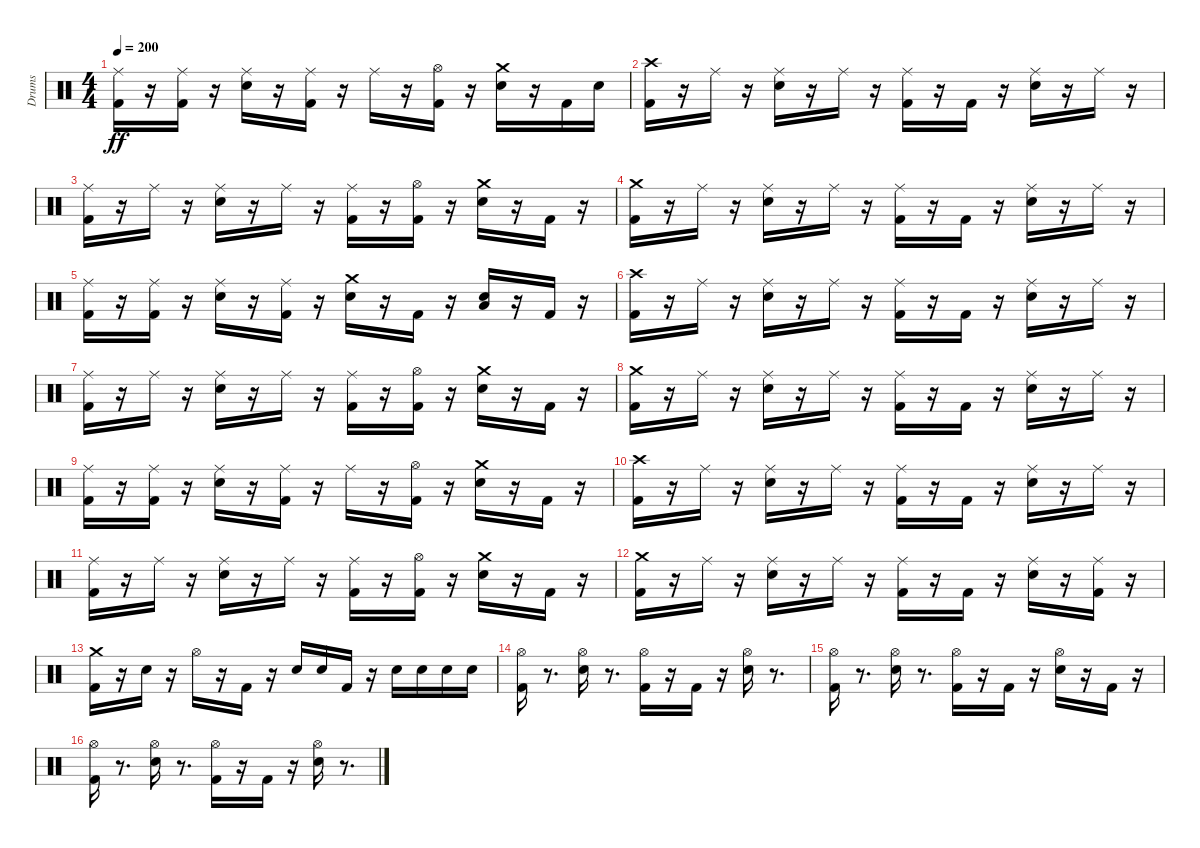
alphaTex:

\track ("Drums" "Drums") {instrument percussion}
\staff {score}
\articulation defaults
\ts (4 4)
\tempo 200
\clef neutral
\ks c
("Kick (hit) 2" "Ride (middle)").16{dy ff} r.16 ("Kick (hit) 2" "Ride (middle)").16 r.16 ("Snare (hit) 2" "Ride (middle)").16 r.16 ("Kick (hit) 2" "Ride (middle)").16 r.16 "Ride (middle)".16 r.16 ("Kick (hit) 2" "Hi-Hat (open)").16 r.16 ("Snare (hit) 2" "Crash medium (hit)").16 r.16 "Kick (hit) 2".16 "Snare (hit) 2".16 |
("Kick (hit) 2" "Crash high (hit)").16 r.16 "Ride (middle)".16 r.16 ("Snare (hit) 2" "Ride (middle)").16 r.16 "Ride (middle)".16 r.16 ("Kick (hit) 2" "Ride (middle)").16 r.16 "Kick (hit) 2".16 r.16 ("Snare (hit) 2" "Ride (middle)").16 r.16 "Ride (middle)".16 r.16 |
("Kick (hit) 2" "Ride (middle)").16 r.16 "Ride (middle)".16 r.16 ("Snare (hit) 2" "Ride (middle)").16 r.16 "Ride (middle)".16 r.16 ("Kick (hit) 2" "Ride (middle)").16 r.16 ("Kick (hit) 2" "Hi-Hat (open)").16 r.16 ("Snare (hit) 2" "Crash medium (hit)").16 r.16 "Kick (hit) 2".16 r.16 |
("Kick (hit) 2" "Crash medium (hit)").16 r.16 "Ride (middle)".16 r.16 ("Snare (hit) 2" "Ride (middle)").16 r.16 "Ride (middle)".16 r.16 ("Kick (hit) 2" "Ride (middle)").16 r.16 "Kick (hit) 2".16 r.16 ("Snare (hit) 2" "Ride (middle)").16 r.16 "Ride (middle)".16 r.16 |
("Kick (hit) 2" "Ride (middle)").16 r.16 ("Kick (hit) 2" "Ride (middle)").16 r.16 ("Snare (hit) 2" "Ride (middle)").16 r.16 ("Kick (hit) 2" "Ride (middle)").16 r.16 ("Snare (hit) 2" "Crash medium (hit)").16 r.16 "Kick (hit) 2".16 r.16 ("Snare (hit) 2" "Low Tom (hit)").16 r.16 "Kick (hit) 2".16 r.16 |
("Kick (hit) 2" "Crash high (hit)").16 r.16 "Ride (middle)".16 r.16 ("Snare (hit) 2" "Ride (middle)").16 r.16 "Ride (middle)".16 r.16 ("Kick (hit) 2" "Ride (middle)").16 r.16 "Kick (hit) 2".16 r.16 ("Snare (hit) 2" "Ride (middle)").16 r.16 "Ride (middle)".16 r.16 |
("Kick (hit) 2" "Ride (middle)").16 r.16 "Ride (middle)".16 r.16 ("Snare (hit) 2" "Ride (middle)").16 r.16 "Ride (middle)".16 r.16 ("Kick (hit) 2" "Ride (middle)").16 r.16 ("Kick (hit) 2" "Hi-Hat (open)").16 r.16 ("Snare (hit) 2" "Crash medium (hit)").16 r.16 "Kick (hit) 2".16 r.16 |
("Kick (hit) 2" "Crash medium (hit)").16 r.16 "Ride (middle)".16 r.16 ("Snare (hit) 2" "Ride (middle)").16 r.16 "Ride (middle)".16 r.16 ("Kick (hit) 2" "Ride (middle)").16 r.16 "Kick (hit) 2".16 r.16 ("Snare (hit) 2" "Ride (middle)").16 r.16 "Ride (middle)".16 r.16 |
("Kick (hit) 2" "Ride (middle)").16 r.16 ("Kick (hit) 2" "Ride (middle)").16 r.16 ("Snare (hit) 2" "Ride (middle)").16 r.16 ("Kick (hit) 2" "Ride (middle)").16 r.16 "Ride (middle)".16 r.16 ("Kick (hit) 2" "Hi-Hat (open)").16 r.16 ("Snare (hit) 2" "Crash medium (hit)").16 r.16 "Kick (hit) 2".16 r.16 |
("Kick (hit) 2" "Crash high (hit)").16 r.16 "Ride (middle)".16 r.16 ("Snare (hit) 2" "Ride (middle)").16 r.16 "Ride (middle)".16 r.16 ("Kick (hit) 2" "Ride (middle)").16 r.16 "Kick (hit) 2".16 r.16 ("Snare (hit) 2" "Ride (middle)").16 r.16 "Ride (middle)".16 r.16 |
("Kick (hit) 2" "Ride (middle)").16 r.16 "Ride (middle)".16 r.16 ("Snare (hit) 2" "Ride (middle)").16 r.16 "Ride (middle)".16 r.16 ("Kick (hit) 2" "Ride (middle)").16 r.16 ("Kick (hit) 2" "Hi-Hat (open)").16 r.16 ("Snare (hit) 2" "Crash medium (hit)").16 r.16 "Kick (hit) 2".16 r.16 |
("Kick (hit) 2" "Crash medium (hit)").16 r.16 "Ride (middle)".16 r.16 ("Snare (hit) 2" "Ride (middle)").16 r.16 "Ride (middle)".16 r.16 ("Kick (hit) 2" "Ride (middle)").16 r.16 "Kick (hit) 2".16 r.16 ("Snare (hit) 2" "Ride (middle)").16 r.16 ("Kick (hit) 2" "Ride (middle)").16 r.16 |
("Kick (hit) 2" "Crash medium (hit)").16 r.16 "Snare (hit) 2".16 r.16 "Hi-Hat (open)".16 r.16 "Kick (hit) 2".16 r.16 "Snare (hit) 2".16 "Snare (hit) 2".16 "Kick (hit) 2".16 r.16 "Snare (hit) 2".16 "Snare (hit) 2".16 "Snare (hit) 2".16 "Snare (hit) 2".16 |
("Kick (hit) 2" "Hi-Hat (open)").16 r.8{d} ("Snare (hit) 2" "Hi-Hat (open)").16 r.8{d} ("Kick (hit) 2" "Hi-Hat (open)").16 r.16 "Kick (hit) 2".16 r.16 ("Snare (hit) 2" "Hi-Hat (open)").16 r.8{d} |
("Kick (hit) 2" "Hi-Hat (open)").16 r.8{d} ("Snare (hit) 2" "Hi-Hat (open)").16 r.8{d} ("Kick (hit) 2" "Hi-Hat (open)").16 r.16 "Kick (hit) 2".16 r.16 ("Snare (hit) 2" "Hi-Hat (open)").16 r.16 "Kick (hit) 2".16 r.16 |
("Kick (hit) 2" "Hi-Hat (open)").16 r.8{d} ("Snare (hit) 2" "Hi-Hat (open)").16 r.8{d} ("Kick (hit) 2" "Hi-Hat (open)").16 r.16 "Kick (hit) 2".16 r.16 ("Snare (hit) 2" "Hi-Hat (open)").16 r.8{d}
